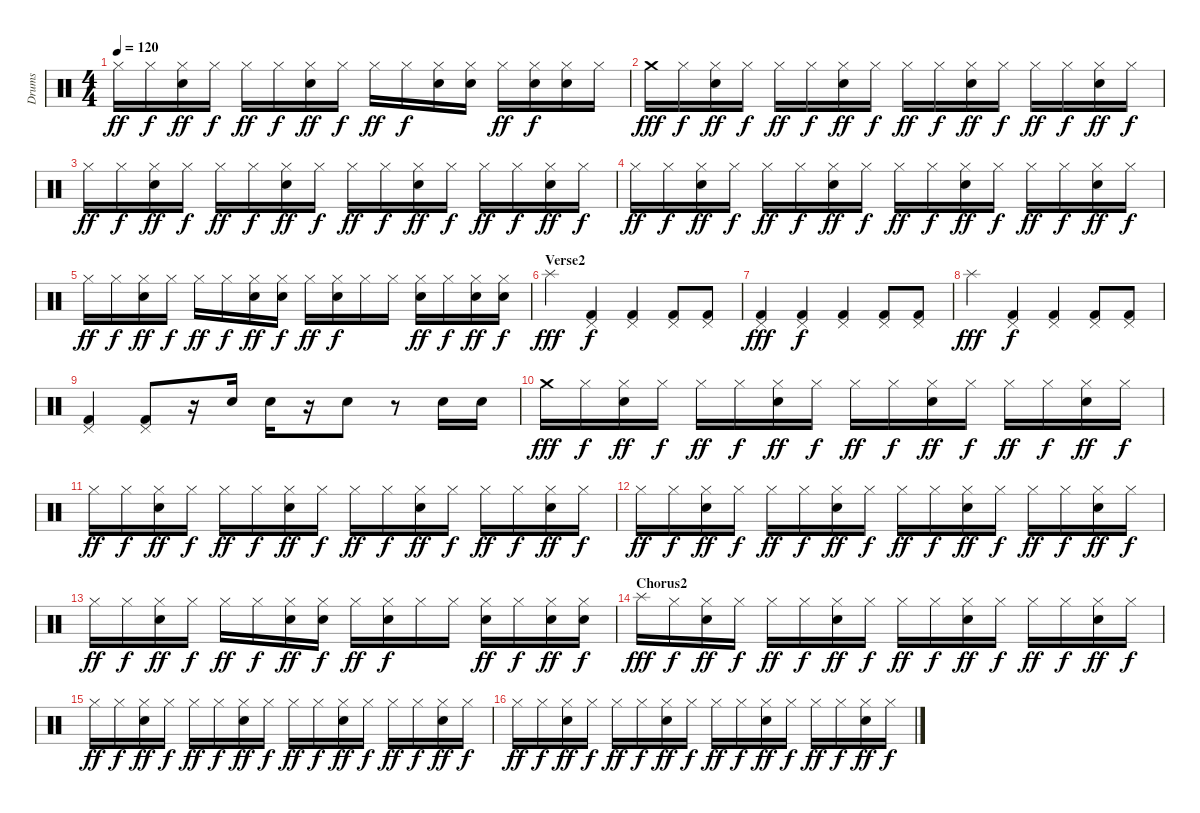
\track ("Drums" "Drums") {instrument percussion}
\staff {score}
\articulation defaults
\ts (4 4)
\tempo 120
\clef neutral
\ks c "Hi-Hat (closed)".16{dy ff} "Hi-Hat (closed)".16{dy f}
("Hi-Hat (closed)" "Snare (hit) 2").16{dy ff} "Hi-Hat (closed)".16{dy f} "Hi-Hat (closed)".16{dy ff} "Hi-Hat (closed)".16{dy f} ("Hi-Hat (closed)" "Snare (hit) 2").16{dy ff} "Hi-Hat (closed)".16{dy f} "Hi-Hat (closed)".16{dy ff} "Hi-Hat (closed)".16{dy f} ("Hi-Hat (closed)" "Snare (hit) 2").16 ("Hi-Hat (closed)" "Snare (hit) 2").16 "Hi-Hat (closed)".16{dy ff} ("Hi-Hat (closed)" "Snare (hit) 2").16{dy f} ("Hi-Hat (closed)" "Snare (hit) 2").16 "Hi-Hat (closed)".16 |
"Crash medium (hit)".16{dy fff} "Hi-Hat (closed)".16{dy f} ("Hi-Hat (closed)" "Snare (hit) 2").16{dy ff} "Hi-Hat (closed)".16{dy f} "Hi-Hat (closed)".16{dy ff} "Hi-Hat (closed)".16{dy f} ("Hi-Hat (closed)" "Snare (hit) 2").16{dy ff} "Hi-Hat (closed)".16{dy f} "Hi-Hat (closed)".16{dy ff} "Hi-Hat (closed)".16{dy f} ("Hi-Hat (closed)" "Snare (hit) 2").16{dy ff} "Hi-Hat (closed)".16{dy f} "Hi-Hat (closed)".16{dy ff} "Hi-Hat (closed)".16{dy f} ("Hi-Hat (closed)" "Snare (hit) 2").16{dy ff} "Hi-Hat (closed)".16{dy f} |
"Hi-Hat (closed)".16{dy ff} "Hi-Hat (closed)".16{dy f} ("Hi-Hat (closed)" "Snare (hit) 2").16{dy ff} "Hi-Hat (closed)".16{dy f} "Hi-Hat (closed)".16{dy ff} "Hi-Hat (closed)".16{dy f} ("Hi-Hat (closed)" "Snare (hit) 2").16{dy ff} "Hi-Hat (closed)".16{dy f} "Hi-Hat (closed)".16{dy ff} "Hi-Hat (closed)".16{dy f} ("Hi-Hat (closed)" "Snare (hit) 2").16{dy ff} "Hi-Hat (closed)".16{dy f} "Hi-Hat (closed)".16{dy ff} "Hi-Hat (closed)".16{dy f} ("Hi-Hat (closed)" "Snare (hit) 2").16{dy ff} "Hi-Hat (closed)".16{dy f} |
"Hi-Hat (closed)".16{dy ff} "Hi-Hat (closed)".16{dy f} ("Hi-Hat (closed)" "Snare (hit) 2").16{dy ff} "Hi-Hat (closed)".16{dy f} "Hi-Hat (closed)".16{dy ff} "Hi-Hat (closed)".16{dy f} ("Hi-Hat (closed)" "Snare (hit) 2").16{dy ff} "Hi-Hat (closed)".16{dy f} "Hi-Hat (closed)".16{dy ff} "Hi-Hat (closed)".16{dy f} ("Hi-Hat (closed)" "Snare (hit) 2").16{dy ff} "Hi-Hat (closed)".16{dy f} "Hi-Hat (closed)".16{dy ff} "Hi-Hat (closed)".16{dy f} ("Hi-Hat (closed)" "Snare (hit) 2").16{dy ff} "Hi-Hat (closed)".16{dy f} |
"Hi-Hat (closed)".16{dy ff} "Hi-Hat (closed)".16{dy f} ("Hi-Hat (closed)" "Snare (hit) 2").16{dy ff} "Hi-Hat (closed)".16{dy f} "Hi-Hat (closed)".16{dy ff} "Hi-Hat (closed)".16{dy f} ("Hi-Hat (closed)" "Snare (hit) 2").16{dy ff} ("Hi-Hat (closed)" "Snare (hit) 2").16{dy f} "Hi-Hat (closed)".16{dy ff} ("Hi-Hat (closed)" "Snare (hit) 2").16{dy f} "Hi-Hat (closed)".16 "Hi-Hat (closed)".16 ("Hi-Hat (closed)" "Snare (hit) 2").16{dy ff} "Hi-Hat (closed)".16{dy f} ("Hi-Hat (closed)" "Snare (hit) 2").16{dy ff} ("Hi-Hat (closed)" "Snare (hit) 2").16{dy f} |
\section ("" "Verse2")
"Splash (hit)".4{dy fff} ("Pedal Hi-Hat (hit)" "Kick (hit) 2").4{dy f} ("Pedal Hi-Hat (hit)" "Kick (hit) 2").4 ("Pedal Hi-Hat (hit)" "Kick (hit) 2").8 ("Pedal Hi-Hat (hit)" "Kick (hit) 2").8 |
("Pedal Hi-Hat (hit)" "Kick (hit) 2").4{dy fff} ("Pedal Hi-Hat (hit)" "Kick (hit) 2").4{dy f} ("Pedal Hi-Hat (hit)" "Kick (hit) 2").4 ("Pedal Hi-Hat (hit)" "Kick (hit) 2").8 ("Pedal Hi-Hat (hit)" "Kick (hit) 2").8 |
"Splash (hit)".4{dy fff} ("Pedal Hi-Hat (hit)" "Kick (hit) 2").4{dy f} ("Pedal Hi-Hat (hit)" "Kick (hit) 2").4 ("Pedal Hi-Hat (hit)" "Kick (hit) 2").8 ("Pedal Hi-Hat (hit)" "Kick (hit) 2").8 |
("Pedal Hi-Hat (hit)" "Kick (hit) 2").4 ("Pedal Hi-Hat (hit)" "Kick (hit) 2").8 r.16 "Snare (hit) 2".16 "Snare (hit) 2".16 r.16 "Snare (hit) 2".8 r.8 "Snare (hit) 2".16 "Snare (hit) 2".16 |
"Crash medium (hit)".16{dy fff} "Hi-Hat (closed)".16{dy f} ("Hi-Hat (closed)" "Snare (hit) 2").16{dy ff} "Hi-Hat (closed)".16{dy f} "Hi-Hat (closed)".16{dy ff} "Hi-Hat (closed)".16{dy f} ("Hi-Hat (closed)" "Snare (hit) 2").16{dy ff} "Hi-Hat (closed)".16{dy f} "Hi-Hat (closed)".16{dy ff} "Hi-Hat (closed)".16{dy f} ("Hi-Hat (closed)" "Snare (hit) 2").16{dy ff} "Hi-Hat (closed)".16{dy f} "Hi-Hat (closed)".16{dy ff} "Hi-Hat (closed)".16{dy f} ("Hi-Hat (closed)" "Snare (hit) 2").16{dy ff} "Hi-Hat (closed)".16{dy f} |
"Hi-Hat (closed)".16{dy ff} "Hi-Hat (closed)".16{dy f} ("Hi-Hat (closed)" "Snare (hit) 2").16{dy ff} "Hi-Hat (closed)".16{dy f} "Hi-Hat (closed)".16{dy ff} "Hi-Hat (closed)".16{dy f} ("Hi-Hat (closed)" "Snare (hit) 2").16{dy ff} "Hi-Hat (closed)".16{dy f} "Hi-Hat (closed)".16{dy ff} "Hi-Hat (closed)".16{dy f} ("Hi-Hat (closed)" "Snare (hit) 2").16{dy ff} "Hi-Hat (closed)".16{dy f} "Hi-Hat (closed)".16{dy ff} "Hi-Hat (closed)".16{dy f} ("Hi-Hat (closed)" "Snare (hit) 2").16{dy ff} "Hi-Hat (closed)".16{dy f} |
"Hi-Hat (closed)".16{dy ff} "Hi-Hat (closed)".16{dy f} ("Hi-Hat (closed)" "Snare (hit) 2").16{dy ff} "Hi-Hat (closed)".16{dy f} "Hi-Hat (closed)".16{dy ff} "Hi-Hat (closed)".16{dy f} ("Hi-Hat (closed)" "Snare (hit) 2").16{dy ff} "Hi-Hat (closed)".16{dy f} "Hi-Hat (closed)".16{dy ff} "Hi-Hat (closed)".16{dy f} ("Hi-Hat (closed)" "Snare (hit) 2").16{dy ff} "Hi-Hat (closed)".16{dy f} "Hi-Hat (closed)".16{dy ff} "Hi-Hat (closed)".16{dy f} ("Hi-Hat (closed)" "Snare (hit) 2").16{dy ff} "Hi-Hat (closed)".16{dy f} |
"Hi-Hat (closed)".16{dy ff} "Hi-Hat (closed)".16{dy f} ("Hi-Hat (closed)" "Snare (hit) 2").16{dy ff} "Hi-Hat (closed)".16{dy f} "Hi-Hat (closed)".16{dy ff} "Hi-Hat (closed)".16{dy f} ("Hi-Hat (closed)" "Snare (hit) 2").16{dy ff} ("Hi-Hat (closed)" "Snare (hit) 2").16{dy f} "Hi-Hat (closed)".16{dy ff} ("Hi-Hat (closed)" "Snare (hit) 2").16{dy f} "Hi-Hat (closed)".16 "Hi-Hat (closed)".16 ("Hi-Hat (closed)" "Snare (hit) 2").16{dy ff} "Hi-Hat (closed)".16{dy f} ("Hi-Hat (closed)" "Snare (hit) 2").16{dy ff} ("Hi-Hat (closed)" "Snare (hit) 2").16{dy f} |
\section ("" "Chorus2")
"Splash (hit)".16{dy fff} "Hi-Hat (closed)".16{dy f} ("Hi-Hat (closed)" "Snare (hit) 2").16{dy ff} "Hi-Hat (closed)".16{dy f} "Hi-Hat (closed)".16{dy ff} "Hi-Hat (closed)".16{dy f} ("Hi-Hat (closed)" "Snare (hit) 2").16{dy ff} "Hi-Hat (closed)".16{dy f} "Hi-Hat (closed)".16{dy ff} "Hi-Hat (closed)".16{dy f} ("Hi-Hat (closed)" "Snare (hit) 2").16{dy ff} "Hi-Hat (closed)".16{dy f} "Hi-Hat (closed)".16{dy ff} "Hi-Hat (closed)".16{dy f} ("Hi-Hat (closed)" "Snare (hit) 2").16{dy ff} "Hi-Hat (closed)".16{dy f} |
"Hi-Hat (closed)".16{dy ff} "Hi-Hat (closed)".16{dy f} ("Hi-Hat (closed)" "Snare (hit) 2").16{dy ff} "Hi-Hat (closed)".16{dy f} "Hi-Hat (closed)".16{dy ff} "Hi-Hat (closed)".16{dy f} ("Hi-Hat (closed)" "Snare (hit) 2").16{dy ff} "Hi-Hat (closed)".16{dy f} "Hi-Hat (closed)".16{dy ff} "Hi-Hat (closed)".16{dy f} ("Hi-Hat (closed)" "Snare (hit) 2").16{dy ff} "Hi-Hat (closed)".16{dy f} "Hi-Hat (closed)".16{dy ff} "Hi-Hat (closed)".16{dy f} ("Hi-Hat (closed)" "Snare (hit) 2").16{dy ff} "Hi-Hat (closed)".16{dy f} |
"Hi-Hat (closed)".16{dy ff} "Hi-Hat (closed)".16{dy f} ("Hi-Hat (closed)" "Snare (hit) 2").16{dy ff} "Hi-Hat (closed)".16{dy f} "Hi-Hat (closed)".16{dy ff} "Hi-Hat (closed)".16{dy f} ("Hi-Hat (closed)" "Snare (hit) 2").16{dy ff} "Hi-Hat (closed)".16{dy f} "Hi-Hat (closed)".16{dy ff} "Hi-Hat (closed)".16{dy f} ("Hi-Hat (closed)" "Snare (hit) 2").16{dy ff} "Hi-Hat (closed)".16{dy f} "Hi-Hat (closed)".16{dy ff} "Hi-Hat (closed)".16{dy f} ("Hi-Hat (closed)" "Snare (hit) 2").16{dy ff} "Hi-Hat (closed)".16{dy f}
